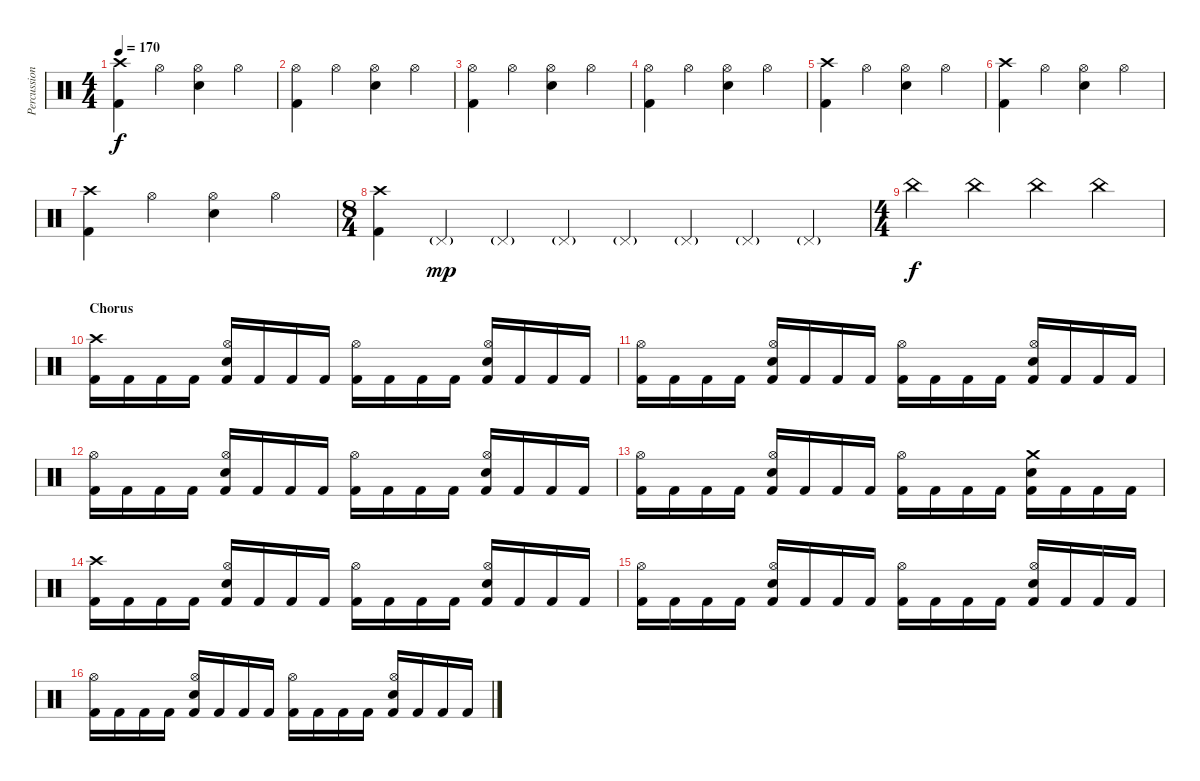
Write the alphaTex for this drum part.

\track ("Percussion" "Percussion") {instrument percussion}
\staff {score}
\articulation defaults
\ts (4 4)
\tempo 170
\clef neutral
\ks c
("Crash high (hit)" "Kick (hit) 2").4{dy f} "Hi-Hat (open)".4 ("Hi-Hat (open)" "Electric Snare (hit)").4 "Hi-Hat (open)".4 |
("Hi-Hat (open)" "Kick (hit) 2").4 "Hi-Hat (open)".4 ("Hi-Hat (open)" "Electric Snare (hit)").4 "Hi-Hat (open)".4 |
("Hi-Hat (open)" "Kick (hit) 2").4 "Hi-Hat (open)".4 ("Hi-Hat (open)" "Electric Snare (hit)").4 "Hi-Hat (open)".4 |
("Hi-Hat (open)" "Kick (hit) 2").4 "Hi-Hat (open)".4 ("Hi-Hat (open)" "Electric Snare (hit)").4 "Hi-Hat (open)".4 |
("Crash high (hit)" "Kick (hit) 2").4 "Hi-Hat (open)".4 ("Hi-Hat (open)" "Electric Snare (hit)").4 "Hi-Hat (open)".4 |
("Crash high (hit)" "Kick (hit) 2").4 "Hi-Hat (open)".4 ("Hi-Hat (open)" "Electric Snare (hit)").4 "Hi-Hat (open)".4 |
("Crash high (hit)" "Kick (hit) 2").4 "Hi-Hat (open)".4 ("Hi-Hat (open)" "Electric Snare (hit)").4 "Hi-Hat (open)".4 |
\ts (8 4)
("Crash high (hit)" "Kick (hit) 2").4 "Pedal Hi-Hat (hit)"{g}.4{dy mp} "Pedal Hi-Hat (hit)"{g}.4 "Pedal Hi-Hat (hit)"{g}.4 "Pedal Hi-Hat (hit)"{g}.4 "Pedal Hi-Hat (hit)"{g}.4 "Pedal Hi-Hat (hit)"{g}.4 "Pedal Hi-Hat (hit)"{g}.4 |
\ts (4 4)
"China (hit)".4{dy f} "China (hit)".4 "China (hit)".4 "China (hit)".4 |
\section ("" "Chorus")
("Crash high (hit)" "Kick (hit) 2").16 "Kick (hit) 2".16 "Kick (hit) 2".16 "Kick (hit) 2".16 ("Hi-Hat (open)" "Electric Snare (hit)" "Kick (hit) 2").16 "Kick (hit) 2".16 "Kick (hit) 2".16 "Kick (hit) 2".16 ("Hi-Hat (open)" "Kick (hit) 2").16 "Kick (hit) 2".16 "Kick (hit) 2".16 "Kick (hit) 2".16 ("Hi-Hat (open)" "Electric Snare (hit)" "Kick (hit) 2").16 "Kick (hit) 2".16 "Kick (hit) 2".16 "Kick (hit) 2".16 |
("Hi-Hat (open)" "Kick (hit) 2").16 "Kick (hit) 2".16 "Kick (hit) 2".16 "Kick (hit) 2".16 ("Hi-Hat (open)" "Electric Snare (hit)" "Kick (hit) 2").16 "Kick (hit) 2".16 "Kick (hit) 2".16 "Kick (hit) 2".16 ("Hi-Hat (open)" "Kick (hit) 2").16 "Kick (hit) 2".16 "Kick (hit) 2".16 "Kick (hit) 2".16 ("Hi-Hat (open)" "Electric Snare (hit)" "Kick (hit) 2").16 "Kick (hit) 2".16 "Kick (hit) 2".16 "Kick (hit) 2".16 |
("Hi-Hat (open)" "Kick (hit) 2").16 "Kick (hit) 2".16 "Kick (hit) 2".16 "Kick (hit) 2".16 ("Hi-Hat (open)" "Electric Snare (hit)" "Kick (hit) 2").16 "Kick (hit) 2".16 "Kick (hit) 2".16 "Kick (hit) 2".16 ("Hi-Hat (open)" "Kick (hit) 2").16 "Kick (hit) 2".16 "Kick (hit) 2".16 "Kick (hit) 2".16 ("Hi-Hat (open)" "Electric Snare (hit)" "Kick (hit) 2").16 "Kick (hit) 2".16 "Kick (hit) 2".16 "Kick (hit) 2".16 |
("Hi-Hat (open)" "Kick (hit) 2").16 "Kick (hit) 2".16 "Kick (hit) 2".16 "Kick (hit) 2".16 ("Hi-Hat (open)" "Electric Snare (hit)" "Kick (hit) 2").16 "Kick (hit) 2".16 "Kick (hit) 2".16 "Kick (hit) 2".16 ("Hi-Hat (open)" "Kick (hit) 2").16 "Kick (hit) 2".16 "Kick (hit) 2".16 "Kick (hit) 2".16 ("Crash medium (hit)" "Electric Snare (hit)" "Kick (hit) 2").16 "Kick (hit) 2".16 "Kick (hit) 2".16 "Kick (hit) 2".16 |
("Crash high (hit)" "Kick (hit) 2").16 "Kick (hit) 2".16 "Kick (hit) 2".16 "Kick (hit) 2".16 ("Hi-Hat (open)" "Electric Snare (hit)" "Kick (hit) 2").16 "Kick (hit) 2".16 "Kick (hit) 2".16 "Kick (hit) 2".16 ("Hi-Hat (open)" "Kick (hit) 2").16 "Kick (hit) 2".16 "Kick (hit) 2".16 "Kick (hit) 2".16 ("Hi-Hat (open)" "Electric Snare (hit)" "Kick (hit) 2").16 "Kick (hit) 2".16 "Kick (hit) 2".16 "Kick (hit) 2".16 |
("Hi-Hat (open)" "Kick (hit) 2").16 "Kick (hit) 2".16 "Kick (hit) 2".16 "Kick (hit) 2".16 ("Hi-Hat (open)" "Electric Snare (hit)" "Kick (hit) 2").16 "Kick (hit) 2".16 "Kick (hit) 2".16 "Kick (hit) 2".16 ("Hi-Hat (open)" "Kick (hit) 2").16 "Kick (hit) 2".16 "Kick (hit) 2".16 "Kick (hit) 2".16 ("Hi-Hat (open)" "Electric Snare (hit)" "Kick (hit) 2").16 "Kick (hit) 2".16 "Kick (hit) 2".16 "Kick (hit) 2".16 |
("Hi-Hat (open)" "Kick (hit) 2").16 "Kick (hit) 2".16 "Kick (hit) 2".16 "Kick (hit) 2".16 ("Hi-Hat (open)" "Electric Snare (hit)" "Kick (hit) 2").16 "Kick (hit) 2".16 "Kick (hit) 2".16 "Kick (hit) 2".16 ("Hi-Hat (open)" "Kick (hit) 2").16 "Kick (hit) 2".16 "Kick (hit) 2".16 "Kick (hit) 2".16 ("Hi-Hat (open)" "Electric Snare (hit)" "Kick (hit) 2").16 "Kick (hit) 2".16 "Kick (hit) 2".16 "Kick (hit) 2".16
